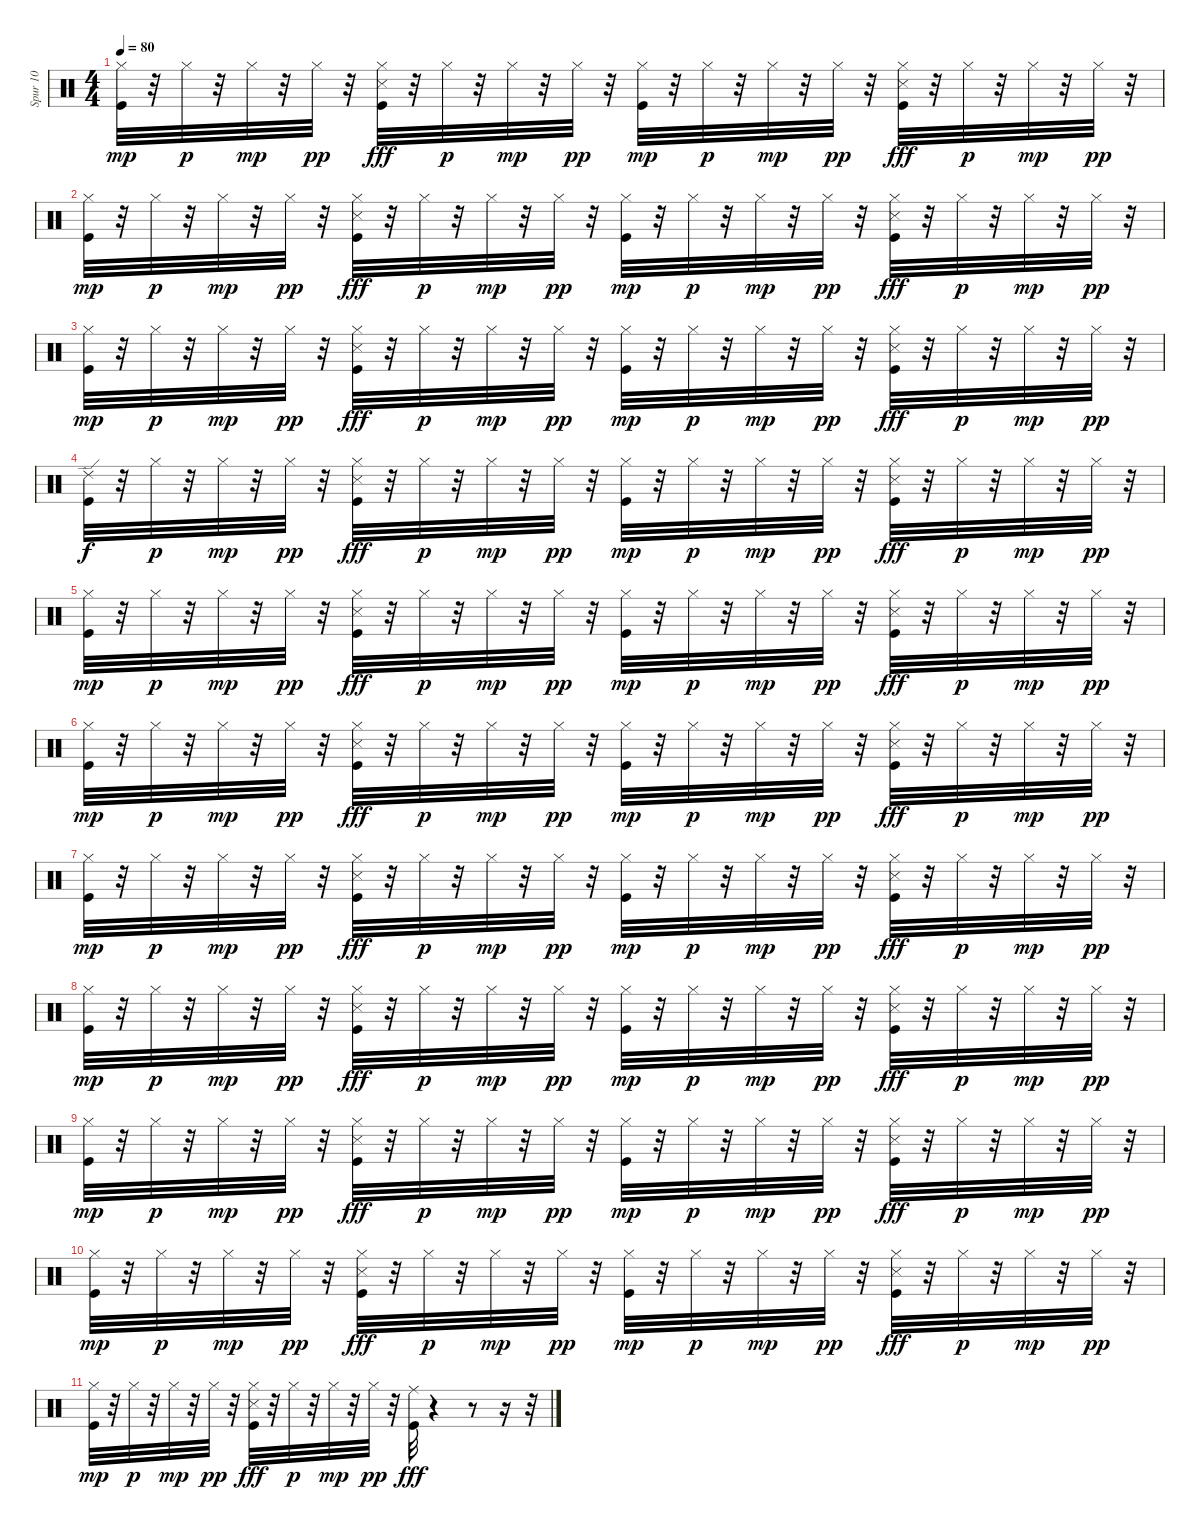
\track ("Spur 10" "Spur 10") {instrument percussion}
\staff {score}
\articulation defaults
\ts (4 4)
\tempo 80
\clef neutral
\ks c
("Hi-Hat (closed)" "Kick (hit)").32{dy mp} r.32 "Hi-Hat (closed)".32{dy p} r.32 "Hi-Hat (closed)".32{dy mp} r.32 "Hi-Hat (closed)".32{dy pp} r.32 ("Hi-Hat (closed)" "Snare (side stick) 3" "Kick (hit)").32{dy fff} r.32 "Hi-Hat (closed)".32{dy p} r.32 "Hi-Hat (closed)".32{dy mp} r.32 "Hi-Hat (closed)".32{dy pp} r.32 ("Hi-Hat (closed)" "Kick (hit)").32{dy mp} r.32 "Hi-Hat (closed)".32{dy p} r.32 "Hi-Hat (closed)".32{dy mp} r.32 "Hi-Hat (closed)".32{dy pp} r.32 ("Hi-Hat (closed)" "Snare (side stick) 3" "Kick (hit)").32{dy fff} r.32 "Hi-Hat (closed)".32{dy p} r.32 "Hi-Hat (closed)".32{dy mp} r.32 "Hi-Hat (closed)".32{dy pp} r.32 |
("Hi-Hat (closed)" "Kick (hit)").32{dy mp} r.32 "Hi-Hat (closed)".32{dy p} r.32 "Hi-Hat (closed)".32{dy mp} r.32 "Hi-Hat (closed)".32{dy pp} r.32 ("Hi-Hat (closed)" "Snare (side stick) 3" "Kick (hit)").32{dy fff} r.32 "Hi-Hat (closed)".32{dy p} r.32 "Hi-Hat (closed)".32{dy mp} r.32 "Hi-Hat (closed)".32{dy pp} r.32 ("Hi-Hat (closed)" "Kick (hit)").32{dy mp} r.32 "Hi-Hat (closed)".32{dy p} r.32 "Hi-Hat (closed)".32{dy mp} r.32 "Hi-Hat (closed)".32{dy pp} r.32 ("Hi-Hat (closed)" "Snare (side stick) 3" "Kick (hit)").32{dy fff} r.32 "Hi-Hat (closed)".32{dy p} r.32 "Hi-Hat (closed)".32{dy mp} r.32 "Hi-Hat (closed)".32{dy pp} r.32 |
("Hi-Hat (closed)" "Kick (hit)").32{dy mp} r.32 "Hi-Hat (closed)".32{dy p} r.32 "Hi-Hat (closed)".32{dy mp} r.32 "Hi-Hat (closed)".32{dy pp} r.32 ("Hi-Hat (closed)" "Snare (side stick) 3" "Kick (hit)").32{dy fff} r.32 "Hi-Hat (closed)".32{dy p} r.32 "Hi-Hat (closed)".32{dy mp} r.32 "Hi-Hat (closed)".32{dy pp} r.32 ("Hi-Hat (closed)" "Kick (hit)").32{dy mp} r.32 "Hi-Hat (closed)".32{dy p} r.32 "Hi-Hat (closed)".32{dy mp} r.32 "Hi-Hat (closed)".32{dy pp} r.32 ("Hi-Hat (closed)" "Snare (side stick) 3" "Kick (hit)").32{dy fff} r.32 "Hi-Hat (closed)".32{dy p} r.32 "Hi-Hat (closed)".32{dy mp} r.32 "Hi-Hat (closed)".32{dy pp} r.32 |
("Ride (edge) 2" "Kick (hit)").32{dy f} r.32 "Hi-Hat (closed)".32{dy p} r.32 "Hi-Hat (closed)".32{dy mp} r.32 "Hi-Hat (closed)".32{dy pp} r.32 ("Hi-Hat (closed)" "Snare (side stick) 3" "Kick (hit)").32{dy fff} r.32 "Hi-Hat (closed)".32{dy p} r.32 "Hi-Hat (closed)".32{dy mp} r.32 "Hi-Hat (closed)".32{dy pp} r.32 ("Hi-Hat (closed)" "Kick (hit)").32{dy mp} r.32 "Hi-Hat (closed)".32{dy p} r.32 "Hi-Hat (closed)".32{dy mp} r.32 "Hi-Hat (closed)".32{dy pp} r.32 ("Hi-Hat (closed)" "Snare (side stick) 3" "Kick (hit)").32{dy fff} r.32 "Hi-Hat (closed)".32{dy p} r.32 "Hi-Hat (closed)".32{dy mp} r.32 "Hi-Hat (closed)".32{dy pp} r.32 |
("Hi-Hat (closed)" "Kick (hit)").32{dy mp} r.32 "Hi-Hat (closed)".32{dy p} r.32 "Hi-Hat (closed)".32{dy mp} r.32 "Hi-Hat (closed)".32{dy pp} r.32 ("Hi-Hat (closed)" "Snare (side stick) 3" "Kick (hit)").32{dy fff} r.32 "Hi-Hat (closed)".32{dy p} r.32 "Hi-Hat (closed)".32{dy mp} r.32 "Hi-Hat (closed)".32{dy pp} r.32 ("Hi-Hat (closed)" "Kick (hit)").32{dy mp} r.32 "Hi-Hat (closed)".32{dy p} r.32 "Hi-Hat (closed)".32{dy mp} r.32 "Hi-Hat (closed)".32{dy pp} r.32 ("Hi-Hat (closed)" "Snare (side stick) 3" "Kick (hit)").32{dy fff} r.32 "Hi-Hat (closed)".32{dy p} r.32 "Hi-Hat (closed)".32{dy mp} r.32 "Hi-Hat (closed)".32{dy pp} r.32 |
("Hi-Hat (closed)" "Kick (hit)").32{dy mp} r.32 "Hi-Hat (closed)".32{dy p} r.32 "Hi-Hat (closed)".32{dy mp} r.32 "Hi-Hat (closed)".32{dy pp} r.32 ("Hi-Hat (closed)" "Snare (side stick) 3" "Kick (hit)").32{dy fff} r.32 "Hi-Hat (closed)".32{dy p} r.32 "Hi-Hat (closed)".32{dy mp} r.32 "Hi-Hat (closed)".32{dy pp} r.32 ("Hi-Hat (closed)" "Kick (hit)").32{dy mp} r.32 "Hi-Hat (closed)".32{dy p} r.32 "Hi-Hat (closed)".32{dy mp} r.32 "Hi-Hat (closed)".32{dy pp} r.32 ("Hi-Hat (closed)" "Snare (side stick) 3" "Kick (hit)").32{dy fff} r.32 "Hi-Hat (closed)".32{dy p} r.32 "Hi-Hat (closed)".32{dy mp} r.32 "Hi-Hat (closed)".32{dy pp} r.32 |
("Hi-Hat (closed)" "Kick (hit)").32{dy mp} r.32 "Hi-Hat (closed)".32{dy p} r.32 "Hi-Hat (closed)".32{dy mp} r.32 "Hi-Hat (closed)".32{dy pp} r.32 ("Hi-Hat (closed)" "Snare (side stick) 3" "Kick (hit)").32{dy fff} r.32 "Hi-Hat (closed)".32{dy p} r.32 "Hi-Hat (closed)".32{dy mp} r.32 "Hi-Hat (closed)".32{dy pp} r.32 ("Hi-Hat (closed)" "Kick (hit)").32{dy mp} r.32 "Hi-Hat (closed)".32{dy p} r.32 "Hi-Hat (closed)".32{dy mp} r.32 "Hi-Hat (closed)".32{dy pp} r.32 ("Hi-Hat (closed)" "Snare (side stick) 3" "Kick (hit)").32{dy fff} r.32 "Hi-Hat (closed)".32{dy p} r.32 "Hi-Hat (closed)".32{dy mp} r.32 "Hi-Hat (closed)".32{dy pp} r.32 |
("Hi-Hat (closed)" "Kick (hit)").32{dy mp} r.32 "Hi-Hat (closed)".32{dy p} r.32 "Hi-Hat (closed)".32{dy mp} r.32 "Hi-Hat (closed)".32{dy pp} r.32 ("Hi-Hat (closed)" "Snare (side stick) 3" "Kick (hit)").32{dy fff} r.32 "Hi-Hat (closed)".32{dy p} r.32 "Hi-Hat (closed)".32{dy mp} r.32 "Hi-Hat (closed)".32{dy pp} r.32 ("Hi-Hat (closed)" "Kick (hit)").32{dy mp} r.32 "Hi-Hat (closed)".32{dy p} r.32 "Hi-Hat (closed)".32{dy mp} r.32 "Hi-Hat (closed)".32{dy pp} r.32 ("Hi-Hat (closed)" "Snare (side stick) 3" "Kick (hit)").32{dy fff} r.32 "Hi-Hat (closed)".32{dy p} r.32 "Hi-Hat (closed)".32{dy mp} r.32 "Hi-Hat (closed)".32{dy pp} r.32 |
("Hi-Hat (closed)" "Kick (hit)").32{dy mp} r.32 "Hi-Hat (closed)".32{dy p} r.32 "Hi-Hat (closed)".32{dy mp} r.32 "Hi-Hat (closed)".32{dy pp} r.32 ("Hi-Hat (closed)" "Snare (side stick) 3" "Kick (hit)").32{dy fff} r.32 "Hi-Hat (closed)".32{dy p} r.32 "Hi-Hat (closed)".32{dy mp} r.32 "Hi-Hat (closed)".32{dy pp} r.32 ("Hi-Hat (closed)" "Kick (hit)").32{dy mp} r.32 "Hi-Hat (closed)".32{dy p} r.32 "Hi-Hat (closed)".32{dy mp} r.32 "Hi-Hat (closed)".32{dy pp} r.32 ("Hi-Hat (closed)" "Snare (side stick) 3" "Kick (hit)").32{dy fff} r.32 "Hi-Hat (closed)".32{dy p} r.32 "Hi-Hat (closed)".32{dy mp} r.32 "Hi-Hat (closed)".32{dy pp} r.32 |
("Hi-Hat (closed)" "Kick (hit)").32{dy mp} r.32 "Hi-Hat (closed)".32{dy p} r.32 "Hi-Hat (closed)".32{dy mp} r.32 "Hi-Hat (closed)".32{dy pp} r.32 ("Hi-Hat (closed)" "Snare (side stick) 3" "Kick (hit)").32{dy fff} r.32 "Hi-Hat (closed)".32{dy p} r.32 "Hi-Hat (closed)".32{dy mp} r.32 "Hi-Hat (closed)".32{dy pp} r.32 ("Hi-Hat (closed)" "Kick (hit)").32{dy mp} r.32 "Hi-Hat (closed)".32{dy p} r.32 "Hi-Hat (closed)".32{dy mp} r.32 "Hi-Hat (closed)".32{dy pp} r.32 ("Hi-Hat (closed)" "Snare (side stick) 3" "Kick (hit)").32{dy fff} r.32 "Hi-Hat (closed)".32{dy p} r.32 "Hi-Hat (closed)".32{dy mp} r.32 "Hi-Hat (closed)".32{dy pp} r.32 |
("Hi-Hat (closed)" "Kick (hit)").32{dy mp} r.32 "Hi-Hat (closed)".32{dy p} r.32 "Hi-Hat (closed)".32{dy mp} r.32 "Hi-Hat (closed)".32{dy pp} r.32 ("Hi-Hat (closed)" "Snare (side stick) 3" "Kick (hit)").32{dy fff} r.32 "Hi-Hat (closed)".32{dy p} r.32 "Hi-Hat (closed)".32{dy mp} r.32 "Hi-Hat (closed)".32{dy pp} r.32 ("Ride (middle)" "Kick (hit)").32{dy fff} r.4 r.8 r.16 r.32
